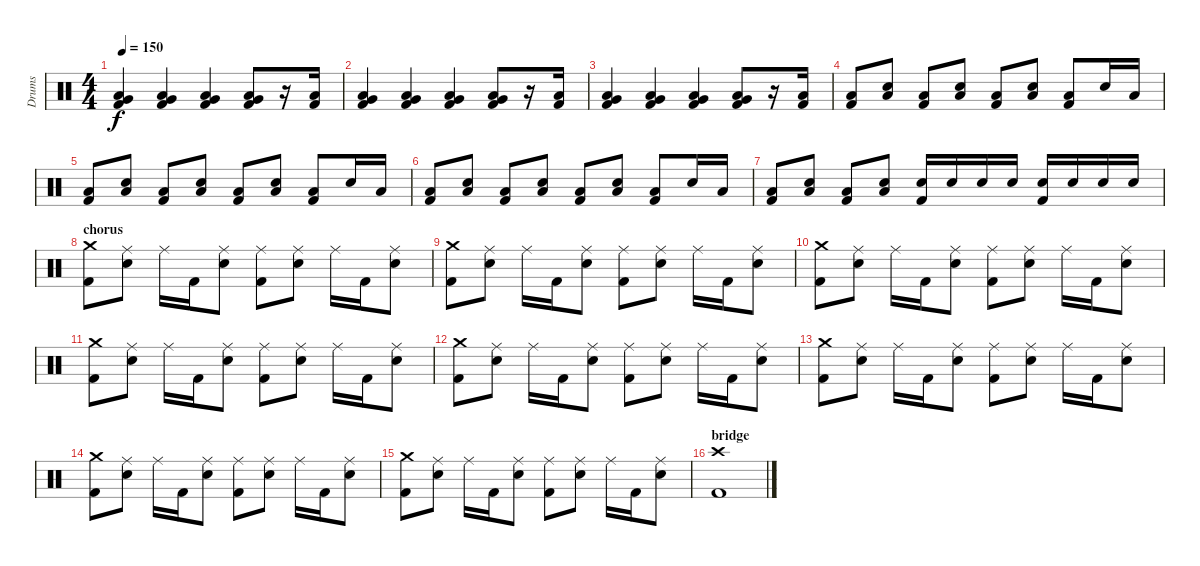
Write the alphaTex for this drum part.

\track ("Drums" "Drums") {instrument percussion}
\staff {score}
\articulation defaults
\ts (4 4)
\tempo 150
\clef neutral
\ks c
("Very Low Tom (hit)" "Low Floor Tom (hit)" "Kick (hit) 2").4{dy f} ("Very Low Tom (hit)" "Low Floor Tom (hit)" "Kick (hit) 2").4 ("Very Low Tom (hit)" "Low Floor Tom (hit)" "Kick (hit) 2").4 ("Very Low Tom (hit)" "Low Floor Tom (hit)" "Kick (hit) 2").8 r.16 ("Low Tom (hit)" "Kick (hit) 2").16 |
("Very Low Tom (hit)" "Low Floor Tom (hit)" "Kick (hit) 2").4 ("Very Low Tom (hit)" "Low Floor Tom (hit)" "Kick (hit) 2").4 ("Very Low Tom (hit)" "Low Floor Tom (hit)" "Kick (hit) 2").4 ("Very Low Tom (hit)" "Low Floor Tom (hit)" "Kick (hit) 2").8 r.16 ("Low Tom (hit)" "Kick (hit) 2").16 |
("Very Low Tom (hit)" "Low Floor Tom (hit)" "Kick (hit) 2").4 ("Very Low Tom (hit)" "Low Floor Tom (hit)" "Kick (hit) 2").4 ("Very Low Tom (hit)" "Low Floor Tom (hit)" "Kick (hit) 2").4 ("Very Low Tom (hit)" "Low Floor Tom (hit)" "Kick (hit) 2").8 r.16 ("Low Tom (hit)" "Kick (hit) 2").16 |
("Low Floor Tom (hit)" "Kick (hit) 2").8 ("Low Floor Tom (hit)" "Electric Snare (hit)").8 ("Low Floor Tom (hit)" "Kick (hit) 2").8 ("Low Floor Tom (hit)" "Electric Snare (hit)").8 ("Low Floor Tom (hit)" "Kick (hit) 2").8 ("Low Floor Tom (hit)" "Electric Snare (hit)").8 ("Low Floor Tom (hit)" "Kick (hit) 2").8 "Electric Snare (hit)".16 "Low Tom (hit)".16 |
("Low Floor Tom (hit)" "Kick (hit) 2").8 ("Low Floor Tom (hit)" "Electric Snare (hit)").8 ("Low Floor Tom (hit)" "Kick (hit) 2").8 ("Low Floor Tom (hit)" "Electric Snare (hit)").8 ("Low Floor Tom (hit)" "Kick (hit) 2").8 ("Low Floor Tom (hit)" "Electric Snare (hit)").8 ("Low Floor Tom (hit)" "Kick (hit) 2").8 "Electric Snare (hit)".16 "Low Tom (hit)".16 |
("Low Floor Tom (hit)" "Kick (hit) 2").8 ("Low Floor Tom (hit)" "Electric Snare (hit)").8 ("Low Floor Tom (hit)" "Kick (hit) 2").8 ("Low Floor Tom (hit)" "Electric Snare (hit)").8 ("Low Floor Tom (hit)" "Kick (hit) 2").8 ("Low Floor Tom (hit)" "Electric Snare (hit)").8 ("Low Floor Tom (hit)" "Kick (hit) 2").8 "Electric Snare (hit)".16 "Low Tom (hit)".16 |
("Low Floor Tom (hit)" "Kick (hit) 2").8 ("Low Floor Tom (hit)" "Electric Snare (hit)").8 ("Low Floor Tom (hit)" "Kick (hit) 2").8 ("Low Floor Tom (hit)" "Electric Snare (hit)").8 ("Electric Snare (hit)" "Kick (hit) 2").16 "Electric Snare (hit)".16 "Electric Snare (hit)".16 "Electric Snare (hit)".16 ("Electric Snare (hit)" "Kick (hit) 2").16 "Electric Snare (hit)".16 "Electric Snare (hit)".16 "Electric Snare (hit)".16 |
\section ("" "chorus")
("Crash medium (hit)" "Kick (hit) 2").8 ("Ride (middle)" "Electric Snare (hit)").8 "Ride (middle)".16 "Kick (hit) 2".16 ("Ride (middle)" "Electric Snare (hit)").8 ("Ride (middle)" "Kick (hit) 2").8 ("Ride (middle)" "Electric Snare (hit)").8 "Ride (middle)".16 "Kick (hit) 2".16 ("Ride (middle)" "Electric Snare (hit)").8 |
("Crash medium (hit)" "Kick (hit) 2").8 ("Ride (middle)" "Electric Snare (hit)").8 "Ride (middle)".16 "Kick (hit) 2".16 ("Ride (middle)" "Electric Snare (hit)").8 ("Ride (middle)" "Kick (hit) 2").8 ("Ride (middle)" "Electric Snare (hit)").8 "Ride (middle)".16 "Kick (hit) 2".16 ("Ride (middle)" "Electric Snare (hit)").8 |
("Crash medium (hit)" "Kick (hit) 2").8 ("Ride (middle)" "Electric Snare (hit)").8 "Ride (middle)".16 "Kick (hit) 2".16 ("Ride (middle)" "Electric Snare (hit)").8 ("Ride (middle)" "Kick (hit) 2").8 ("Ride (middle)" "Electric Snare (hit)").8 "Ride (middle)".16 "Kick (hit) 2".16 ("Ride (middle)" "Electric Snare (hit)").8 |
("Crash medium (hit)" "Kick (hit) 2").8 ("Ride (middle)" "Electric Snare (hit)").8 "Ride (middle)".16 "Kick (hit) 2".16 ("Ride (middle)" "Electric Snare (hit)").8 ("Ride (middle)" "Kick (hit) 2").8 ("Ride (middle)" "Electric Snare (hit)").8 "Ride (middle)".16 "Kick (hit) 2".16 ("Ride (middle)" "Electric Snare (hit)").8 |
("Crash medium (hit)" "Kick (hit) 2").8 ("Ride (middle)" "Electric Snare (hit)").8 "Ride (middle)".16 "Kick (hit) 2".16 ("Ride (middle)" "Electric Snare (hit)").8 ("Ride (middle)" "Kick (hit) 2").8 ("Ride (middle)" "Electric Snare (hit)").8 "Ride (middle)".16 "Kick (hit) 2".16 ("Ride (middle)" "Electric Snare (hit)").8 |
("Crash medium (hit)" "Kick (hit) 2").8 ("Ride (middle)" "Electric Snare (hit)").8 "Ride (middle)".16 "Kick (hit) 2".16 ("Ride (middle)" "Electric Snare (hit)").8 ("Ride (middle)" "Kick (hit) 2").8 ("Ride (middle)" "Electric Snare (hit)").8 "Ride (middle)".16 "Kick (hit) 2".16 ("Ride (middle)" "Electric Snare (hit)").8 |
("Crash medium (hit)" "Kick (hit) 2").8 ("Ride (middle)" "Electric Snare (hit)").8 "Ride (middle)".16 "Kick (hit) 2".16 ("Ride (middle)" "Electric Snare (hit)").8 ("Ride (middle)" "Kick (hit) 2").8 ("Ride (middle)" "Electric Snare (hit)").8 "Ride (middle)".16 "Kick (hit) 2".16 ("Ride (middle)" "Electric Snare (hit)").8 |
("Crash medium (hit)" "Kick (hit) 2").8 ("Ride (middle)" "Electric Snare (hit)").8 "Ride (middle)".16 "Kick (hit) 2".16 ("Ride (middle)" "Electric Snare (hit)").8 ("Ride (middle)" "Kick (hit) 2").8 ("Ride (middle)" "Electric Snare (hit)").8 "Ride (middle)".16 "Kick (hit) 2".16 ("Ride (middle)" "Electric Snare (hit)").8 |
\section ("" "bridge")
("Crash high (hit)" "Kick (hit) 2").1
